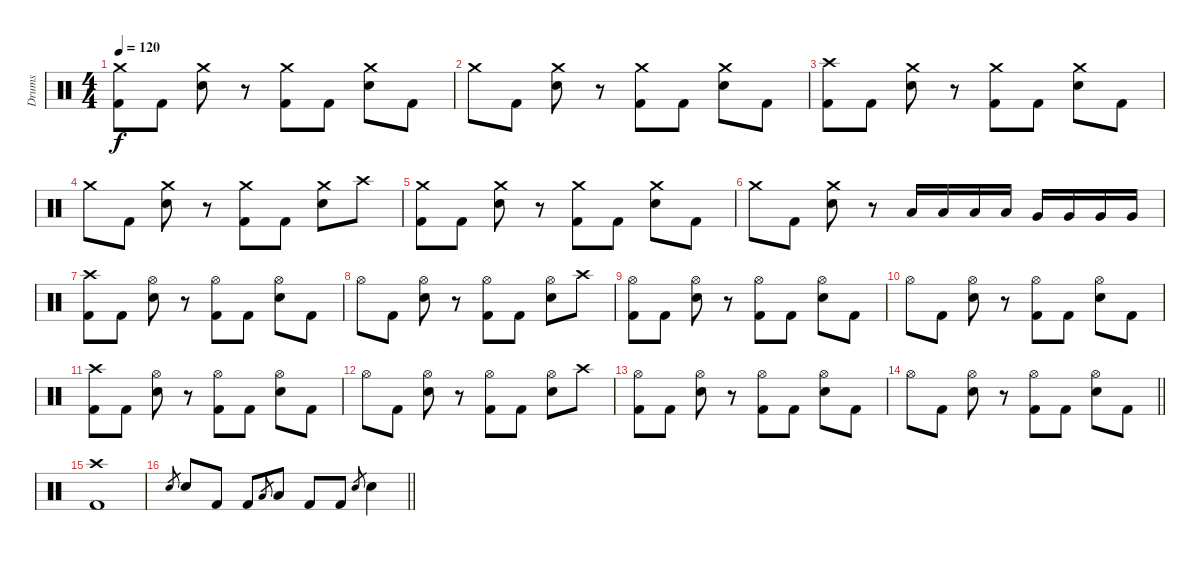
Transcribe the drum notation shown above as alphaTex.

\track ("Drums" "Drums") {instrument percussion}
\staff {score}
\articulation defaults
\ts (4 4)
\tempo 120
\clef neutral
\ks c
("Crash medium (hit)" "Kick (hit) 2").8{dy f} "Kick (hit) 2".8 ("Crash medium (hit)" "Snare (hit) 2").8 r.8 ("Crash medium (hit)" "Kick (hit) 2").8 "Kick (hit) 2".8 ("Crash medium (hit)" "Snare (hit) 2").8 "Kick (hit) 2".8 |
"Crash medium (hit)".8 "Kick (hit) 2".8 ("Crash medium (hit)" "Snare (hit) 2").8 r.8 ("Crash medium (hit)" "Kick (hit) 2").8 "Kick (hit) 2".8 ("Crash medium (hit)" "Snare (hit) 2").8 "Kick (hit) 2".8 |
("Crash high (hit)" "Kick (hit) 2").8 "Kick (hit) 2".8 ("Crash medium (hit)" "Snare (hit) 2").8 r.8 ("Crash medium (hit)" "Kick (hit) 2").8 "Kick (hit) 2".8 ("Crash medium (hit)" "Snare (hit) 2").8 "Kick (hit) 2".8 |
"Crash medium (hit)".8 "Kick (hit) 2".8 ("Crash medium (hit)" "Snare (hit) 2").8 r.8 ("Crash medium (hit)" "Kick (hit) 2").8 "Kick (hit) 2".8 ("Crash medium (hit)" "Snare (hit) 2").8 "Crash high (hit)".8 |
("Crash medium (hit)" "Kick (hit) 2").8 "Kick (hit) 2".8 ("Crash medium (hit)" "Snare (hit) 2").8 r.8 ("Crash medium (hit)" "Kick (hit) 2").8 "Kick (hit) 2".8 ("Crash medium (hit)" "Snare (hit) 2").8 "Kick (hit) 2".8 |
"Crash medium (hit)".8 "Kick (hit) 2".8 ("Crash medium (hit)" "Snare (hit) 2").8 r.8 "Low Tom (hit)".16 "Low Tom (hit)".16 "Low Tom (hit)".16 "Low Tom (hit)".16 "Very Low Tom (hit)".16 "Very Low Tom (hit)".16 "Very Low Tom (hit)".16 "Very Low Tom (hit)".16 |
("Crash high (hit)" "Kick (hit) 2").8 "Kick (hit) 2".8 ("Hi-Hat (open)" "Snare (hit) 2").8 r.8 ("Hi-Hat (open)" "Kick (hit) 2").8 "Kick (hit) 2".8 ("Hi-Hat (open)" "Snare (hit) 2").8 "Kick (hit) 2".8 |
"Hi-Hat (open)".8 "Kick (hit) 2".8 ("Hi-Hat (open)" "Snare (hit) 2").8 r.8 ("Hi-Hat (open)" "Kick (hit) 2").8 "Kick (hit) 2".8 ("Hi-Hat (open)" "Snare (hit) 2").8 "Crash high (hit)".8 |
("Hi-Hat (open)" "Kick (hit) 2").8 "Kick (hit) 2".8 ("Hi-Hat (open)" "Snare (hit) 2").8 r.8 ("Hi-Hat (open)" "Kick (hit) 2").8 "Kick (hit) 2".8 ("Hi-Hat (open)" "Snare (hit) 2").8 "Kick (hit) 2".8 |
"Hi-Hat (open)".8 "Kick (hit) 2".8 ("Hi-Hat (open)" "Snare (hit) 2").8 r.8 ("Hi-Hat (open)" "Kick (hit) 2").8 "Kick (hit) 2".8 ("Hi-Hat (open)" "Snare (hit) 2").8 "Kick (hit) 2".8 |
("Crash high (hit)" "Kick (hit) 2").8 "Kick (hit) 2".8 ("Hi-Hat (open)" "Snare (hit) 2").8 r.8 ("Hi-Hat (open)" "Kick (hit) 2").8 "Kick (hit) 2".8 ("Hi-Hat (open)" "Snare (hit) 2").8 "Kick (hit) 2".8 |
"Hi-Hat (open)".8 "Kick (hit) 2".8 ("Hi-Hat (open)" "Snare (hit) 2").8 r.8 ("Hi-Hat (open)" "Kick (hit) 2").8 "Kick (hit) 2".8 ("Hi-Hat (open)" "Snare (hit) 2").8 "Crash high (hit)".8 |
("Hi-Hat (open)" "Kick (hit) 2").8 "Kick (hit) 2".8 ("Hi-Hat (open)" "Snare (hit) 2").8 r.8 ("Hi-Hat (open)" "Kick (hit) 2").8 "Kick (hit) 2".8 ("Hi-Hat (open)" "Snare (hit) 2").8 "Kick (hit) 2".8 |
\barLineRight lightlight "Hi-Hat (open)".8 "Kick (hit) 2".8
("Hi-Hat (open)" "Snare (hit) 2").8 r.8 ("Hi-Hat (open)" "Kick (hit) 2").8 "Kick (hit) 2".8 ("Hi-Hat (open)" "Snare (hit) 2").8 "Kick (hit) 2".8 |
("Crash high (hit)" "Kick (hit) 2").1 |
\barLineRight lightlight "Snare (hit) 2".8{gr} "Snare (hit) 2".8 "Kick (hit) 2".8 "Kick (hit) 2".8 "Low Tom (hit)".8{gr} "Low Tom (hit)".8 "Kick (hit) 2".8 "Kick (hit) 2".8 "Snare (hit) 2".8{gr} "Snare (hit) 2".4
